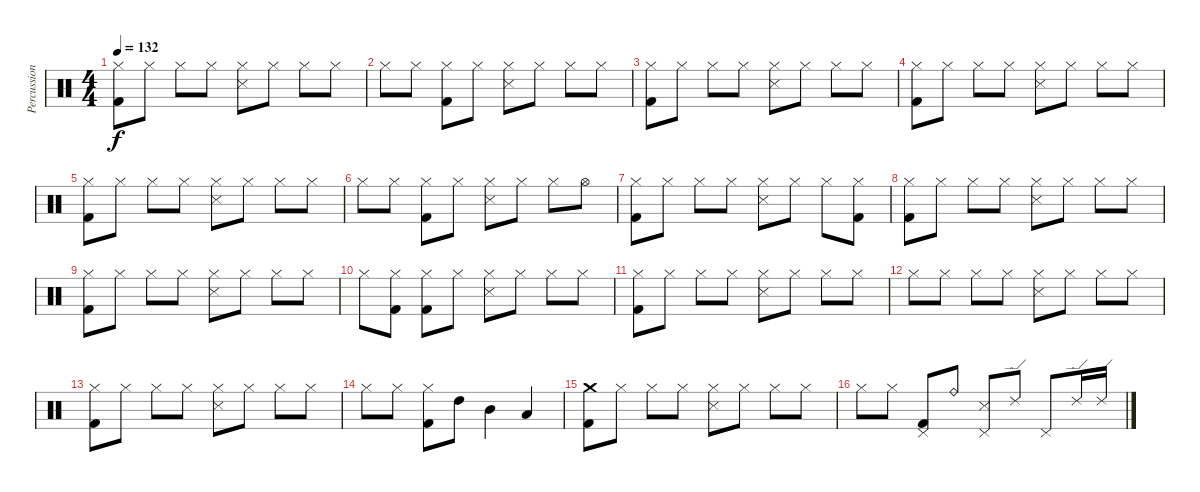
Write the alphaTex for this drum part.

\track ("Percussion" "Percussion") {instrument percussion}
\staff {score}
\articulation defaults
\ts (4 4)
\tempo 132
\clef neutral
\ks c
("Hi-Hat (closed)" "Kick (hit) 2").8{dy f} "Hi-Hat (closed)".8 "Hi-Hat (closed)".8 "Hi-Hat (closed)".8 ("Hi-Hat (closed)" "Snare (side stick) 3").8 "Hi-Hat (closed)".8 "Hi-Hat (closed)".8 "Hi-Hat (closed)".8 |
"Hi-Hat (closed)".8 "Hi-Hat (closed)".8 ("Hi-Hat (closed)" "Kick (hit) 2").8 "Hi-Hat (closed)".8 ("Hi-Hat (closed)" "Snare (side stick) 3").8 "Hi-Hat (closed)".8 "Hi-Hat (closed)".8 "Hi-Hat (closed)".8 |
("Hi-Hat (closed)" "Kick (hit) 2").8 "Hi-Hat (closed)".8 "Hi-Hat (closed)".8 "Hi-Hat (closed)".8 ("Hi-Hat (closed)" "Snare (side stick) 3").8 "Hi-Hat (closed)".8 "Hi-Hat (closed)".8 "Hi-Hat (closed)".8 |
("Hi-Hat (closed)" "Kick (hit) 2").8 "Hi-Hat (closed)".8 "Hi-Hat (closed)".8 "Hi-Hat (closed)".8 ("Hi-Hat (closed)" "Snare (side stick) 3").8 "Hi-Hat (closed)".8 "Hi-Hat (closed)".8 "Hi-Hat (closed)".8 |
("Hi-Hat (closed)" "Kick (hit) 2").8 "Hi-Hat (closed)".8 "Hi-Hat (closed)".8 "Hi-Hat (closed)".8 ("Hi-Hat (closed)" "Snare (side stick) 3").8 "Hi-Hat (closed)".8 "Hi-Hat (closed)".8 "Hi-Hat (closed)".8 |
"Hi-Hat (closed)".8 "Hi-Hat (closed)".8 ("Hi-Hat (closed)" "Kick (hit) 2").8 "Hi-Hat (closed)".8 ("Hi-Hat (closed)" "Snare (side stick) 3").8 "Hi-Hat (closed)".8 "Hi-Hat (closed)".8 "Hi-Hat (open)".8 |
("Hi-Hat (closed)" "Kick (hit) 2").8 "Hi-Hat (closed)".8 "Hi-Hat (closed)".8 "Hi-Hat (closed)".8 ("Hi-Hat (closed)" "Snare (side stick) 3").8 "Hi-Hat (closed)".8 "Hi-Hat (closed)".8 ("Hi-Hat (closed)" "Kick (hit) 2").8 |
("Hi-Hat (closed)" "Kick (hit) 2").8 "Hi-Hat (closed)".8 "Hi-Hat (closed)".8 "Hi-Hat (closed)".8 ("Hi-Hat (closed)" "Snare (side stick) 3").8 "Hi-Hat (closed)".8 "Hi-Hat (closed)".8 "Hi-Hat (closed)".8 |
("Hi-Hat (closed)" "Kick (hit) 2").8 "Hi-Hat (closed)".8 "Hi-Hat (closed)".8 "Hi-Hat (closed)".8 ("Hi-Hat (closed)" "Snare (side stick) 3").8 "Hi-Hat (closed)".8 "Hi-Hat (closed)".8 "Hi-Hat (closed)".8 |
"Hi-Hat (closed)".8 ("Hi-Hat (closed)" "Kick (hit) 2").8 ("Hi-Hat (closed)" "Kick (hit) 2").8 "Hi-Hat (closed)".8 ("Hi-Hat (closed)" "Snare (side stick) 3").8 "Hi-Hat (closed)".8 "Hi-Hat (closed)".8 "Hi-Hat (closed)".8 |
("Hi-Hat (closed)" "Kick (hit) 2").8 "Hi-Hat (closed)".8 "Hi-Hat (closed)".8 "Hi-Hat (closed)".8 ("Hi-Hat (closed)" "Snare (side stick) 3").8 "Hi-Hat (closed)".8 "Hi-Hat (closed)".8 "Hi-Hat (closed)".8 |
"Hi-Hat (closed)".8 "Hi-Hat (closed)".8 "Hi-Hat (closed)".8 "Hi-Hat (closed)".8 ("Hi-Hat (closed)" "Snare (side stick) 3").8 "Hi-Hat (closed)".8 "Hi-Hat (closed)".8 "Hi-Hat (closed)".8 |
("Hi-Hat (closed)" "Kick (hit) 2").8 "Hi-Hat (closed)".8 "Hi-Hat (closed)".8 "Hi-Hat (closed)".8 ("Hi-Hat (closed)" "Snare (side stick) 3").8 "Hi-Hat (closed)".8 "Hi-Hat (closed)".8 "Hi-Hat (closed)".8 |
"Hi-Hat (closed)".8 "Hi-Hat (closed)".8 ("Hi-Hat (closed)" "Kick (hit) 2").8 "High Tom (hit)".8 "Mid Tom (hit)".4 "Low Tom (hit)".4 |
("Crash medium (hit)" "Kick (hit) 2").8 "Hi-Hat (closed)".8 "Hi-Hat (closed)".8 "Hi-Hat (closed)".8 ("Hi-Hat (closed)" "Snare (side stick) 3").8 "Hi-Hat (closed)".8 "Hi-Hat (closed)".8 "Hi-Hat (closed)".8 |
"Hi-Hat (closed)".8 "Hi-Hat (closed)".8 ("Pedal Hi-Hat (hit)" "Kick (hit) 2").8 "Ride (bell)".8 ("Pedal Hi-Hat (hit)" "Snare (side stick) 3").8 "Ride (edge) 2".8 "Pedal Hi-Hat (hit)".8 "Ride (edge) 2".16 "Ride (edge) 2".16
